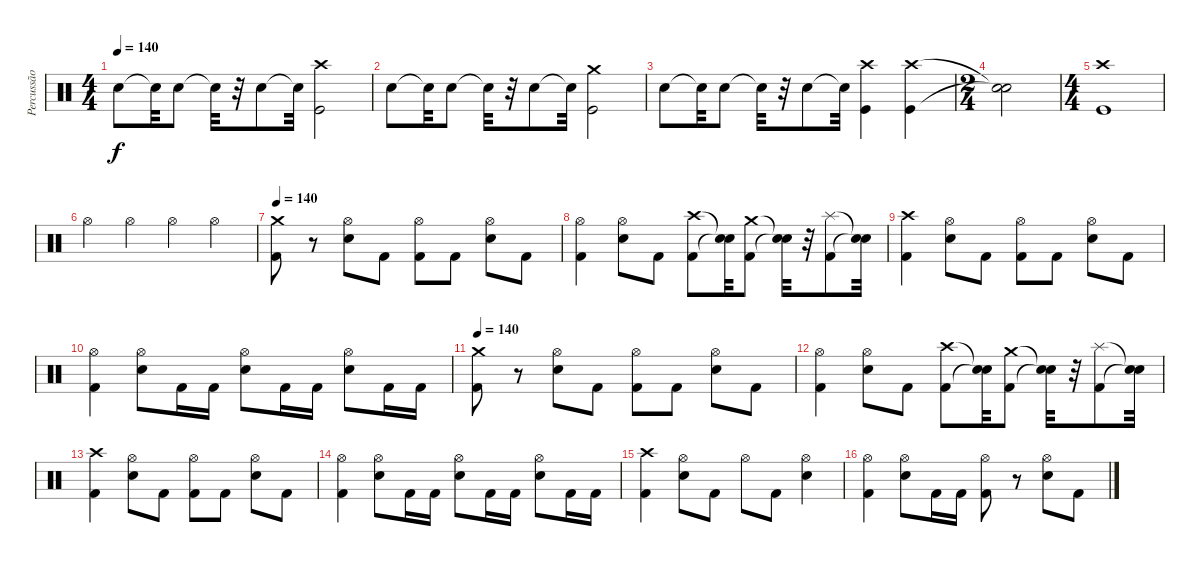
\track ("Percussão" "Percussão") {instrument percussion}
\staff {score}
\articulation defaults
\ts (4 4)
\tempo 140
\clef neutral
\ks c "Electric Snare (hit)".8{dy f} "Snare (hit)"{t}.32 "Electric Snare (hit)".8 "Snare (hit)"{t}.32
r.32 "Electric Snare (hit)".8 "Snare (hit)"{t}.32 ("Crash high (hit)" "Kick (hit)").2 |
"Electric Snare (hit)".8 "Snare (hit)"{t}.32 "Electric Snare (hit)".8 "Snare (hit)"{t}.32 r.32 "Electric Snare (hit)".8 "Snare (hit)"{t}.32 ("Crash medium (hit)" "Kick (hit)").2 |
"Electric Snare (hit)".8 "Snare (hit)"{t}.32 "Electric Snare (hit)".8 "Snare (hit)"{t}.32 r.32 "Electric Snare (hit)".8 "Snare (hit)"{t}.32 ("Crash high (hit)" "Kick (hit)").4 ("Crash high (hit)" "Kick (hit)").4 |
\ts (2 4)
("Snare (hit)"{t} "Snare (hit)"{t}).2 |
\ts (4 4)
("Crash high (hit)" "Kick (hit)").1 |
"Hi-Hat (open)".4 "Hi-Hat (open)".4 "Hi-Hat (open)".4 "Hi-Hat (open)".4 |
\tempo 140
("Kick (hit) 2" "Crash medium (hit)").8 r.8 ("Hi-Hat (open)" "Electric Snare (hit)").8 "Kick (hit) 2".8 ("Hi-Hat (open)" "Kick (hit) 2").8 "Kick (hit) 2".8 ("Hi-Hat (open)" "Electric Snare (hit)").8 "Kick (hit) 2".8 |
("Hi-Hat (open)" "Kick (hit) 2").4 ("Hi-Hat (open)" "Electric Snare (hit)").8 "Kick (hit) 2".8 ("Crash high (hit)" "Kick (hit) 2").8 ("Snare (hit)"{t} "Snare (hit)"{t}).32 ("Crash medium (hit)" "Kick (hit) 2").8 ("Snare (hit)"{t} "Snare (hit)"{t}).32 r.32 ("Splash (hit)" "Kick (hit) 2").8 ("Snare (hit)"{t} "Snare (hit)"{t}).32 |
("Crash high (hit)" "Kick (hit) 2").4 ("Hi-Hat (open)" "Electric Snare (hit)").8 "Kick (hit) 2".8 ("Hi-Hat (open)" "Kick (hit) 2").8 "Kick (hit) 2".8 ("Hi-Hat (open)" "Electric Snare (hit)").8 "Kick (hit) 2".8 |
("Hi-Hat (open)" "Kick (hit) 2").4 ("Hi-Hat (open)" "Electric Snare (hit)").8 "Kick (hit) 2".16 "Kick (hit) 2".16 ("Hi-Hat (open)" "Electric Snare (hit)").8 "Kick (hit) 2".16 "Kick (hit) 2".16 ("Hi-Hat (open)" "Electric Snare (hit)").8 "Kick (hit) 2".16 "Kick (hit) 2".16 |
\tempo 140
("Kick (hit) 2" "Crash medium (hit)").8 r.8 ("Hi-Hat (open)" "Electric Snare (hit)").8 "Kick (hit) 2".8 ("Hi-Hat (open)" "Kick (hit) 2").8 "Kick (hit) 2".8 ("Hi-Hat (open)" "Electric Snare (hit)").8 "Kick (hit) 2".8 |
("Hi-Hat (open)" "Kick (hit) 2").4 ("Hi-Hat (open)" "Electric Snare (hit)").8 "Kick (hit) 2".8 ("Crash high (hit)" "Kick (hit) 2").8 ("Snare (hit)"{t} "Snare (hit)"{t}).32 ("Crash medium (hit)" "Kick (hit) 2").8 ("Snare (hit)"{t} "Snare (hit)"{t}).32 r.32 ("Splash (hit)" "Kick (hit) 2").8 ("Snare (hit)"{t} "Snare (hit)"{t}).32 |
("Crash high (hit)" "Kick (hit) 2").4 ("Hi-Hat (open)" "Electric Snare (hit)").8 "Kick (hit) 2".8 ("Hi-Hat (open)" "Kick (hit) 2").8 "Kick (hit) 2".8 ("Hi-Hat (open)" "Electric Snare (hit)").8 "Kick (hit) 2".8 |
("Hi-Hat (open)" "Kick (hit) 2").4 ("Hi-Hat (open)" "Electric Snare (hit)").8 "Kick (hit) 2".16 "Kick (hit) 2".16 ("Hi-Hat (open)" "Electric Snare (hit)").8 "Kick (hit) 2".16 "Kick (hit) 2".16 ("Hi-Hat (open)" "Electric Snare (hit)").8 "Kick (hit) 2".16 "Kick (hit) 2".16 |
("Crash high (hit)" "Kick (hit) 2").4 ("Hi-Hat (open)" "Electric Snare (hit)").8 "Kick (hit) 2".8 "Hi-Hat (open)".8 "Kick (hit) 2".8 ("Hi-Hat (open)" "Electric Snare (hit)").4 |
("Hi-Hat (open)" "Kick (hit) 2").4 ("Hi-Hat (open)" "Electric Snare (hit)").8 "Kick (hit) 2".16 "Kick (hit) 2".16 ("Hi-Hat (open)" "Kick (hit) 2").8 r.8 ("Hi-Hat (open)" "Electric Snare (hit)").8 "Kick (hit) 2".8
